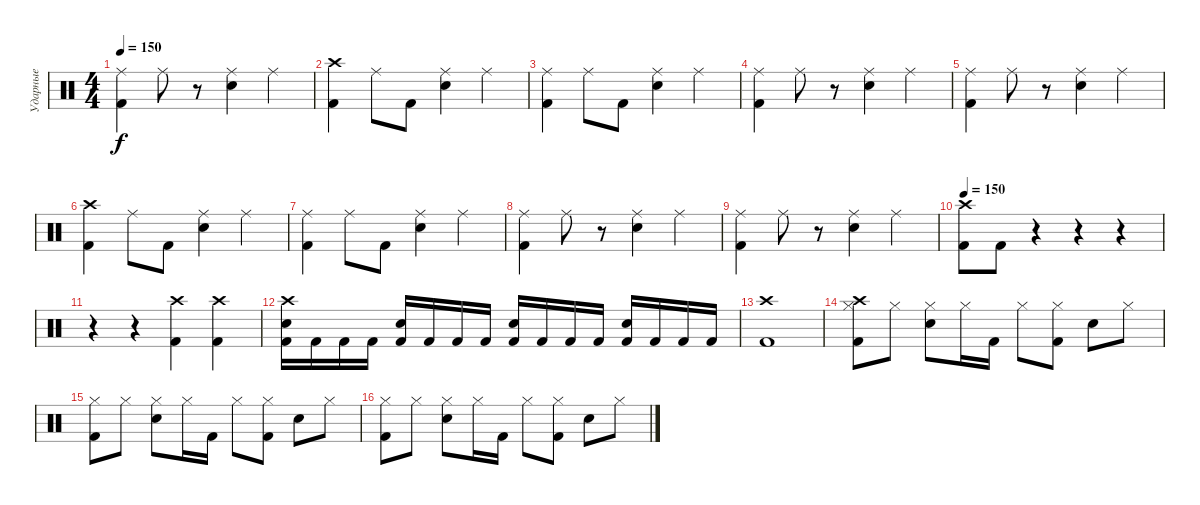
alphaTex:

\track ("Ударные" "Ударные") {instrument percussion}
\staff {score}
\articulation defaults
\ts (4 4)
\tempo 150
\clef neutral
\ks c
("Kick (hit) 2" "Ride (middle)").4{dy f} "Ride (middle)".8 r.8 ("Ride (middle)" "Electric Snare (hit)").4 "Ride (middle)".4 |
("Kick (hit) 2" "Crash high (hit)").4 "Ride (middle)".8 "Kick (hit) 2".8 ("Ride (middle)" "Electric Snare (hit)").4 "Ride (middle)".4 |
("Kick (hit) 2" "Ride (middle)").4 "Ride (middle)".8 "Kick (hit) 2".8 ("Ride (middle)" "Electric Snare (hit)").4 "Ride (middle)".4 |
("Kick (hit) 2" "Ride (middle)").4 "Ride (middle)".8 r.8 ("Ride (middle)" "Electric Snare (hit)").4 "Ride (middle)".4 |
("Kick (hit) 2" "Ride (middle)").4 "Ride (middle)".8 r.8 ("Ride (middle)" "Electric Snare (hit)").4 "Ride (middle)".4 |
("Kick (hit) 2" "Crash high (hit)").4 "Ride (middle)".8 "Kick (hit) 2".8 ("Ride (middle)" "Electric Snare (hit)").4 "Ride (middle)".4 |
("Kick (hit) 2" "Ride (middle)").4 "Ride (middle)".8 "Kick (hit) 2".8 ("Ride (middle)" "Electric Snare (hit)").4 "Ride (middle)".4 |
("Kick (hit) 2" "Ride (middle)").4 "Ride (middle)".8 r.8 ("Ride (middle)" "Electric Snare (hit)").4 "Ride (middle)".4 |
("Kick (hit) 2" "Ride (middle)").4 "Ride (middle)".8 r.8 ("Ride (middle)" "Electric Snare (hit)").4 "Ride (middle)".4 |
\tempo 150
("Crash high (hit)" "Kick (hit) 2").8 "Kick (hit) 2".8 r.4 r.4 r.4 |
r.4 r.4 ("Kick (hit) 2" "Crash high (hit)").4 ("Crash high (hit)" "Kick (hit) 2").4 |
("Crash high (hit)" "Electric Snare (hit)" "Kick (hit) 2").16 "Kick (hit) 2".16 "Kick (hit) 2".16 "Kick (hit) 2".16 ("Electric Snare (hit)" "Kick (hit) 2").16 "Kick (hit) 2".16 "Kick (hit) 2".16 "Kick (hit) 2".16 ("Electric Snare (hit)" "Kick (hit) 2").16 "Kick (hit) 2".16 "Kick (hit) 2".16 "Kick (hit) 2".16 ("Electric Snare (hit)" "Kick (hit) 2").16 "Kick (hit) 2".16 "Kick (hit) 2".16 "Kick (hit) 2".16 |
("Kick (hit) 2" "Crash high (hit)").1 |
("Kick (hit) 2" "Hi-Hat (closed)" "Crash high (hit)").8 "Hi-Hat (closed)".8 ("Electric Snare (hit)" "Hi-Hat (closed)").8 "Hi-Hat (closed)".16 "Kick (hit) 2".16 "Hi-Hat (closed)".8 ("Kick (hit) 2" "Hi-Hat (closed)").8 "Electric Snare (hit)".8 "Hi-Hat (closed)".8 |
("Kick (hit) 2" "Hi-Hat (closed)").8 "Hi-Hat (closed)".8 ("Electric Snare (hit)" "Hi-Hat (closed)").8 "Hi-Hat (closed)".16 "Kick (hit) 2".16 "Hi-Hat (closed)".8 ("Kick (hit) 2" "Hi-Hat (closed)").8 "Electric Snare (hit)".8 "Hi-Hat (closed)".8 |
("Kick (hit) 2" "Hi-Hat (closed)").8 "Hi-Hat (closed)".8 ("Electric Snare (hit)" "Hi-Hat (closed)").8 "Hi-Hat (closed)".16 "Kick (hit) 2".16 "Hi-Hat (closed)".8 ("Kick (hit) 2" "Hi-Hat (closed)").8 "Electric Snare (hit)".8 "Hi-Hat (closed)".8
